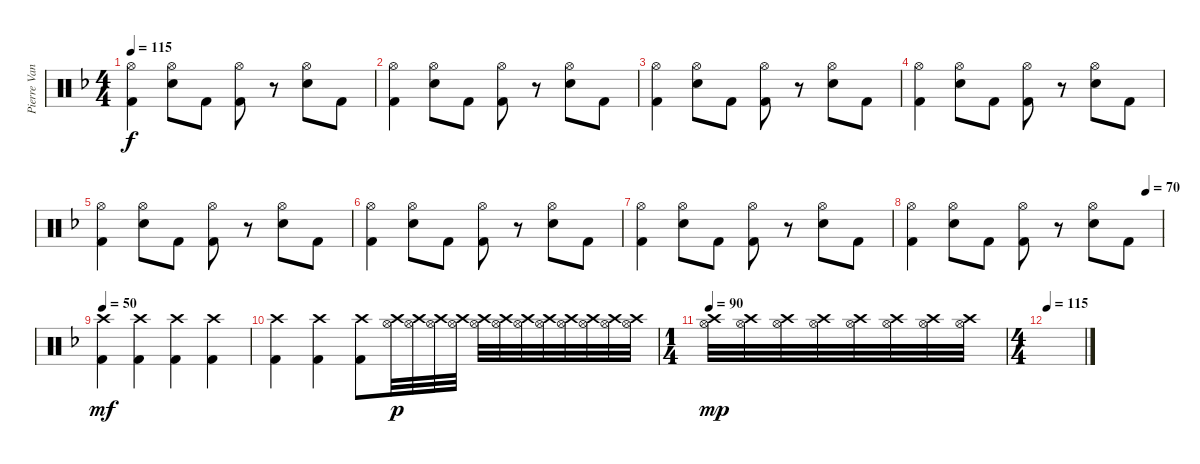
\track ("Pierre Van Der Linden" "Pierre Van") {instrument percussion}
\staff {score}
\articulation defaults
\ts (4 4)
\tempo 115
\clef neutral
\ks f
("Hi-Hat (open)" "Kick (hit) 2").4{dy f} ("Hi-Hat (open)" "Electric Snare (hit)").8 "Kick (hit) 2".8 ("Hi-Hat (open)" "Kick (hit) 2").8 r.8 ("Hi-Hat (open)" "Electric Snare (hit)").8 "Kick (hit) 2".8 |
("Hi-Hat (open)" "Kick (hit) 2").4 ("Hi-Hat (open)" "Electric Snare (hit)").8 "Kick (hit) 2".8 ("Hi-Hat (open)" "Kick (hit) 2").8 r.8 ("Hi-Hat (open)" "Electric Snare (hit)").8 "Kick (hit) 2".8 |
("Hi-Hat (open)" "Kick (hit) 2").4 ("Hi-Hat (open)" "Electric Snare (hit)").8 "Kick (hit) 2".8 ("Hi-Hat (open)" "Kick (hit) 2").8 r.8 ("Hi-Hat (open)" "Electric Snare (hit)").8 "Kick (hit) 2".8 |
("Hi-Hat (open)" "Kick (hit) 2").4 ("Hi-Hat (open)" "Electric Snare (hit)").8 "Kick (hit) 2".8 ("Hi-Hat (open)" "Kick (hit) 2").8 r.8 ("Hi-Hat (open)" "Electric Snare (hit)").8 "Kick (hit) 2".8 |
("Hi-Hat (open)" "Kick (hit) 2").4 ("Hi-Hat (open)" "Electric Snare (hit)").8 "Kick (hit) 2".8 ("Hi-Hat (open)" "Kick (hit) 2").8 r.8 ("Hi-Hat (open)" "Electric Snare (hit)").8 "Kick (hit) 2".8 |
("Hi-Hat (open)" "Kick (hit) 2").4 ("Hi-Hat (open)" "Electric Snare (hit)").8 "Kick (hit) 2".8 ("Hi-Hat (open)" "Kick (hit) 2").8 r.8 ("Hi-Hat (open)" "Electric Snare (hit)").8 "Kick (hit) 2".8 |
("Hi-Hat (open)" "Kick (hit) 2").4 ("Hi-Hat (open)" "Electric Snare (hit)").8 "Kick (hit) 2".8 ("Hi-Hat (open)" "Kick (hit) 2").8 r.8 ("Hi-Hat (open)" "Electric Snare (hit)").8 "Kick (hit) 2".8 |
\tempo (70 0.9375)
("Hi-Hat (open)" "Kick (hit) 2").4 ("Hi-Hat (open)" "Electric Snare (hit)").8 "Kick (hit) 2".8 ("Hi-Hat (open)" "Kick (hit) 2").8 r.8 ("Hi-Hat (open)" "Electric Snare (hit)").8 "Kick (hit) 2".8 |
\tempo 50
("Crash high (hit)" "Kick (hit) 2").4{dy mf} ("Crash high (hit)" "Kick (hit) 2").4 ("Crash high (hit)" "Kick (hit) 2").4 ("Crash high (hit)" "Kick (hit) 2").4 |
("Crash high (hit)" "Kick (hit) 2").4 ("Crash high (hit)" "Kick (hit) 2").4 ("Crash high (hit)" "Kick (hit) 2").8 ("Hi-Hat (open)" "Crash high (hit)").32{dy p} ("Hi-Hat (open)" "Crash high (hit)").32 ("Hi-Hat (open)" "Crash high (hit)").32 ("Hi-Hat (open)" "Crash high (hit)").32 ("Hi-Hat (open)" "Crash high (hit)").32 ("Hi-Hat (open)" "Crash high (hit)").32 ("Hi-Hat (open)" "Crash high (hit)").32 ("Hi-Hat (open)" "Crash high (hit)").32 ("Hi-Hat (open)" "Crash high (hit)").32 ("Hi-Hat (open)" "Crash high (hit)").32 ("Hi-Hat (open)" "Crash high (hit)").32 ("Hi-Hat (open)" "Crash high (hit)").32 |
\ts (1 4)
\tempo 90
("Hi-Hat (open)" "Crash high (hit)").32{dy mp} ("Hi-Hat (open)" "Crash high (hit)").32 ("Hi-Hat (open)" "Crash high (hit)").32 ("Hi-Hat (open)" "Crash high (hit)").32 ("Hi-Hat (open)" "Crash high (hit)").32 ("Hi-Hat (open)" "Crash high (hit)").32 ("Hi-Hat (open)" "Crash high (hit)").32 ("Hi-Hat (open)" "Crash high (hit)").32 |
\ts (4 4)
\tempo 115
